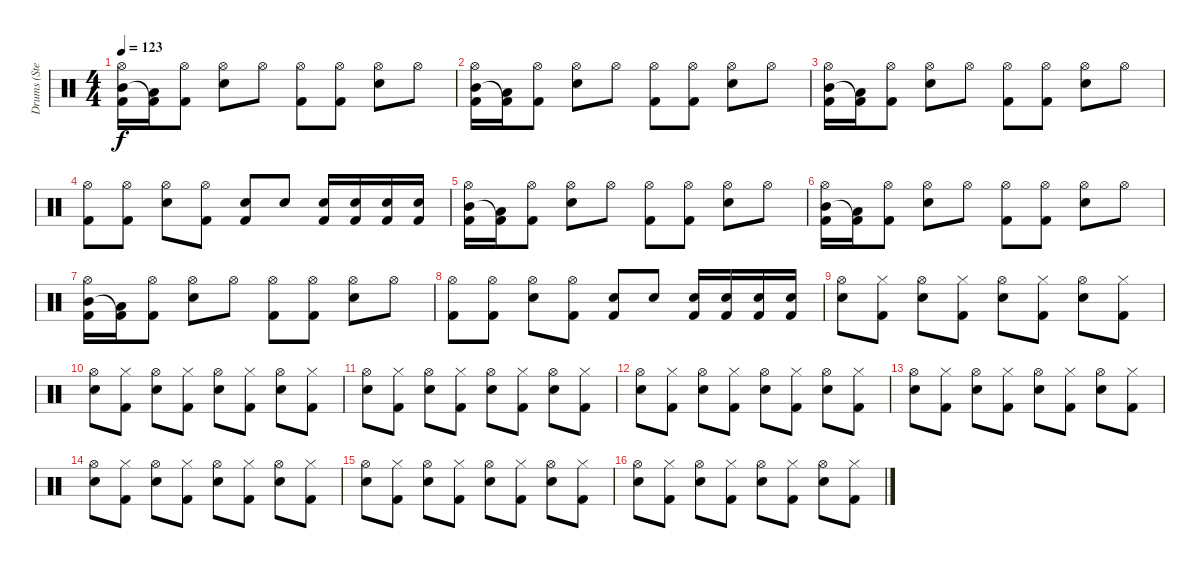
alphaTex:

\track ("Drums (Steve)" "Drums (Ste") {instrument percussion}
\staff {score}
\articulation defaults
\ts (4 4)
\tempo 123
\clef neutral
\ks c
("Hi-Hat (open)" "Mid Tom (hit)" "Kick (hit) 2").16{dy f} ("Low Tom (hit)" "Kick (hit) 2"{t}).16 ("Hi-Hat (open)" "Kick (hit) 2").8 ("Hi-Hat (open)" "Snare (hit) 2").8 "Hi-Hat (open)".8 ("Hi-Hat (open)" "Kick (hit) 2").8 ("Hi-Hat (open)" "Kick (hit) 2").8 ("Hi-Hat (open)" "Snare (hit) 2").8 "Hi-Hat (open)".8 |
("Hi-Hat (open)" "Mid Tom (hit)" "Kick (hit) 2").16 ("Low Tom (hit)" "Kick (hit) 2"{t}).16 ("Hi-Hat (open)" "Kick (hit) 2").8 ("Hi-Hat (open)" "Snare (hit) 2").8 "Hi-Hat (open)".8 ("Hi-Hat (open)" "Kick (hit) 2").8 ("Hi-Hat (open)" "Kick (hit) 2").8 ("Hi-Hat (open)" "Snare (hit) 2").8 "Hi-Hat (open)".8 |
("Hi-Hat (open)" "Mid Tom (hit)" "Kick (hit) 2").16 ("Low Tom (hit)" "Kick (hit) 2"{t}).16 ("Hi-Hat (open)" "Kick (hit) 2").8 ("Hi-Hat (open)" "Snare (hit) 2").8 "Hi-Hat (open)".8 ("Hi-Hat (open)" "Kick (hit) 2").8 ("Hi-Hat (open)" "Kick (hit) 2").8 ("Hi-Hat (open)" "Snare (hit) 2").8 "Hi-Hat (open)".8 |
("Hi-Hat (open)" "Kick (hit) 2").8 ("Hi-Hat (open)" "Kick (hit) 2").8 ("Hi-Hat (open)" "Snare (hit) 2").8 ("Hi-Hat (open)" "Kick (hit) 2").8 ("Snare (hit) 2" "Kick (hit) 2").8 "Snare (hit) 2".8 ("Snare (hit) 2" "Kick (hit) 2").16 ("Snare (hit) 2" "Kick (hit) 2").16 ("Snare (hit) 2" "Kick (hit) 2").16 ("Snare (hit) 2" "Kick (hit) 2").16 |
("Hi-Hat (open)" "Mid Tom (hit)" "Kick (hit) 2").16 ("Low Tom (hit)" "Kick (hit) 2"{t}).16 ("Hi-Hat (open)" "Kick (hit) 2").8 ("Hi-Hat (open)" "Snare (hit) 2").8 "Hi-Hat (open)".8 ("Hi-Hat (open)" "Kick (hit) 2").8 ("Hi-Hat (open)" "Kick (hit) 2").8 ("Hi-Hat (open)" "Snare (hit) 2").8 "Hi-Hat (open)".8 |
("Hi-Hat (open)" "Mid Tom (hit)" "Kick (hit) 2").16 ("Low Tom (hit)" "Kick (hit) 2"{t}).16 ("Hi-Hat (open)" "Kick (hit) 2").8 ("Hi-Hat (open)" "Snare (hit) 2").8 "Hi-Hat (open)".8 ("Hi-Hat (open)" "Kick (hit) 2").8 ("Hi-Hat (open)" "Kick (hit) 2").8 ("Hi-Hat (open)" "Snare (hit) 2").8 "Hi-Hat (open)".8 |
("Hi-Hat (open)" "Mid Tom (hit)" "Kick (hit) 2").16 ("Low Tom (hit)" "Kick (hit) 2"{t}).16 ("Hi-Hat (open)" "Kick (hit) 2").8 ("Hi-Hat (open)" "Snare (hit) 2").8 "Hi-Hat (open)".8 ("Hi-Hat (open)" "Kick (hit) 2").8 ("Hi-Hat (open)" "Kick (hit) 2").8 ("Hi-Hat (open)" "Snare (hit) 2").8 "Hi-Hat (open)".8 |
("Hi-Hat (open)" "Kick (hit) 2").8 ("Hi-Hat (open)" "Kick (hit) 2").8 ("Hi-Hat (open)" "Snare (hit) 2").8 ("Hi-Hat (open)" "Kick (hit) 2").8 ("Snare (hit) 2" "Kick (hit) 2").8 "Snare (hit) 2".8 ("Snare (hit) 2" "Kick (hit) 2").16 ("Snare (hit) 2" "Kick (hit) 2").16 ("Snare (hit) 2" "Kick (hit) 2").16 ("Snare (hit) 2" "Kick (hit) 2").16 |
("Hi-Hat (open)" "Snare (hit) 2").8 ("Hi-Hat (closed)" "Kick (hit) 2").8 ("Hi-Hat (open)" "Snare (hit) 2").8 ("Hi-Hat (closed)" "Kick (hit) 2").8 ("Hi-Hat (open)" "Snare (hit) 2").8 ("Hi-Hat (closed)" "Kick (hit) 2").8 ("Hi-Hat (open)" "Snare (hit) 2").8 ("Hi-Hat (closed)" "Kick (hit) 2").8 |
("Hi-Hat (open)" "Snare (hit) 2").8 ("Hi-Hat (closed)" "Kick (hit) 2").8 ("Hi-Hat (open)" "Snare (hit) 2").8 ("Hi-Hat (closed)" "Kick (hit) 2").8 ("Hi-Hat (open)" "Snare (hit) 2").8 ("Hi-Hat (closed)" "Kick (hit) 2").8 ("Hi-Hat (open)" "Snare (hit) 2").8 ("Hi-Hat (closed)" "Kick (hit) 2").8 |
("Hi-Hat (open)" "Snare (hit) 2").8 ("Hi-Hat (closed)" "Kick (hit) 2").8 ("Hi-Hat (open)" "Snare (hit) 2").8 ("Hi-Hat (closed)" "Kick (hit) 2").8 ("Hi-Hat (open)" "Snare (hit) 2").8 ("Hi-Hat (closed)" "Kick (hit) 2").8 ("Hi-Hat (open)" "Snare (hit) 2").8 ("Hi-Hat (closed)" "Kick (hit) 2").8 |
("Hi-Hat (open)" "Snare (hit) 2").8 ("Hi-Hat (closed)" "Kick (hit) 2").8 ("Hi-Hat (open)" "Snare (hit) 2").8 ("Hi-Hat (closed)" "Kick (hit) 2").8 ("Hi-Hat (open)" "Snare (hit) 2").8 ("Hi-Hat (closed)" "Kick (hit) 2").8 ("Hi-Hat (open)" "Snare (hit) 2").8 ("Hi-Hat (closed)" "Kick (hit) 2").8 |
("Hi-Hat (open)" "Snare (hit) 2").8 ("Hi-Hat (closed)" "Kick (hit) 2").8 ("Hi-Hat (open)" "Snare (hit) 2").8 ("Hi-Hat (closed)" "Kick (hit) 2").8 ("Hi-Hat (open)" "Snare (hit) 2").8 ("Hi-Hat (closed)" "Kick (hit) 2").8 ("Hi-Hat (open)" "Snare (hit) 2").8 ("Hi-Hat (closed)" "Kick (hit) 2").8 |
("Hi-Hat (open)" "Snare (hit) 2").8 ("Hi-Hat (closed)" "Kick (hit) 2").8 ("Hi-Hat (open)" "Snare (hit) 2").8 ("Hi-Hat (closed)" "Kick (hit) 2").8 ("Hi-Hat (open)" "Snare (hit) 2").8 ("Hi-Hat (closed)" "Kick (hit) 2").8 ("Hi-Hat (open)" "Snare (hit) 2").8 ("Hi-Hat (closed)" "Kick (hit) 2").8 |
("Hi-Hat (open)" "Snare (hit) 2").8 ("Hi-Hat (closed)" "Kick (hit) 2").8 ("Hi-Hat (open)" "Snare (hit) 2").8 ("Hi-Hat (closed)" "Kick (hit) 2").8 ("Hi-Hat (open)" "Snare (hit) 2").8 ("Hi-Hat (closed)" "Kick (hit) 2").8 ("Hi-Hat (open)" "Snare (hit) 2").8 ("Hi-Hat (closed)" "Kick (hit) 2").8 |
("Hi-Hat (open)" "Snare (hit) 2").8 ("Hi-Hat (closed)" "Kick (hit) 2").8 ("Hi-Hat (open)" "Snare (hit) 2").8 ("Hi-Hat (closed)" "Kick (hit) 2").8 ("Hi-Hat (open)" "Snare (hit) 2").8 ("Hi-Hat (closed)" "Kick (hit) 2").8 ("Hi-Hat (open)" "Snare (hit) 2").8 ("Hi-Hat (closed)" "Kick (hit) 2").8
